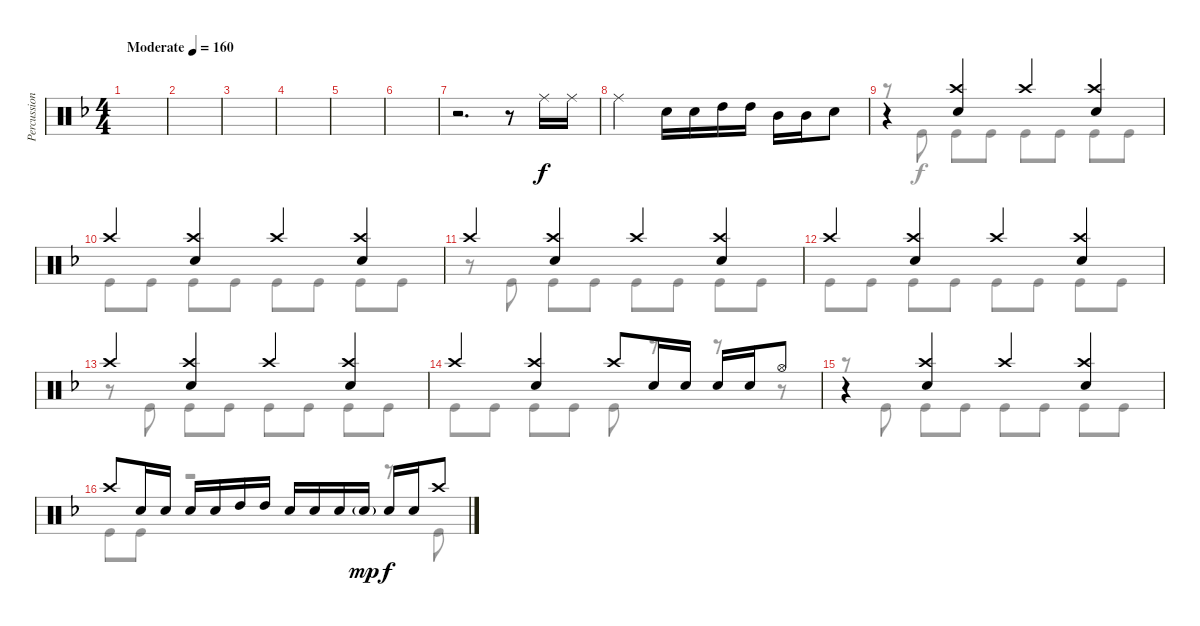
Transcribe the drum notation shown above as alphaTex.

\track ("Percussion" "Percussion") {instrument percussion}
\staff {score}
\articulation defaults
\voice
\ts (4 4)
\tempo (160 "Moderate")
\clef neutral
\ks dminor
|
|
|
|
|
|
r.2{d} r.8 "Ride (middle)".16 "Ride (middle)".16 |
"Ride (middle)".2 "Snare (hit) 2".16 "Snare (hit) 2".16 "High Tom (hit)".16 "High Tom (hit)".16 "Mid Tom (hit)".16 "Mid Tom (hit)".16 "Snare (hit) 2".8 |
r.4 ("Crash high (hit)" "Snare (hit) 2").4 "Crash high (hit)".4 ("Crash high (hit)" "Snare (hit) 2").4 |
"Crash high (hit)".4 ("Crash high (hit)" "Snare (hit) 2").4 "Crash high (hit)".4 ("Crash high (hit)" "Snare (hit) 2").4 |
"Crash high (hit)".4 ("Crash high (hit)" "Snare (hit) 2").4 "Crash high (hit)".4 ("Crash high (hit)" "Snare (hit) 2").4 |
"Crash high (hit)".4 ("Crash high (hit)" "Snare (hit) 2").4 "Crash high (hit)".4 ("Crash high (hit)" "Snare (hit) 2").4 |
"Crash high (hit)".4 ("Crash high (hit)" "Snare (hit) 2").4 "Crash high (hit)".4 ("Crash high (hit)" "Snare (hit) 2").4 |
"Crash high (hit)".4 ("Crash high (hit)" "Snare (hit) 2").4 "Crash high (hit)".8 "Snare (hit) 2".16 "Snare (hit) 2".16 "Snare (hit) 2".16 "Snare (hit) 2".16 "Hi-Hat (open)".8 |
r.4 ("Crash high (hit)" "Snare (hit) 2").4 "Crash high (hit)".4 ("Crash high (hit)" "Snare (hit) 2").4 |
"Crash high (hit)".8 "Snare (hit) 2".16 "Snare (hit) 2".16 "Snare (hit) 2".16 "Snare (hit) 2".16 "High Tom (hit)".16 "High Tom (hit)".16 "Snare (hit) 2".16 "Snare (hit) 2".16 "Snare (hit) 2".16 "Snare (hit) 2"{g}.16{dy mp} "Snare (hit) 2".16{dy f} "Snare (hit) 2".16 "Crash high (hit)".8
\voice
\clef neutral
\ottava regular
\simile none
\ks dminor
|
|
|
|
|
|
|
|
r.8 "Kick (hit)".8 "Kick (hit)".8 "Kick (hit)".8 "Kick (hit)".8 "Kick (hit)".8 "Kick (hit)".8 "Kick (hit)".8 |
"Kick (hit)".8 "Kick (hit)".8 "Kick (hit)".8 "Kick (hit)".8 "Kick (hit)".8 "Kick (hit)".8 "Kick (hit)".8 "Kick (hit)".8 |
r.8 "Kick (hit)".8 "Kick (hit)".8 "Kick (hit)".8 "Kick (hit)".8 "Kick (hit)".8 "Kick (hit)".8 "Kick (hit)".8 |
"Kick (hit)".8 "Kick (hit)".8 "Kick (hit)".8 "Kick (hit)".8 "Kick (hit)".8 "Kick (hit)".8 "Kick (hit)".8 "Kick (hit)".8 |
r.8 "Kick (hit)".8 "Kick (hit)".8 "Kick (hit)".8 "Kick (hit)".8 "Kick (hit)".8 "Kick (hit)".8 "Kick (hit)".8 |
"Kick (hit)".8 "Kick (hit)".8 "Kick (hit)".8 "Kick (hit)".8 "Kick (hit)".8 r.8 r.8 r.8 |
r.8 "Kick (hit)".8 "Kick (hit)".8 "Kick (hit)".8 "Kick (hit)".8 "Kick (hit)".8 "Kick (hit)".8 "Kick (hit)".8 |
"Kick (hit)".8 "Kick (hit)".8 r.2 r.8 "Kick (hit)".8
